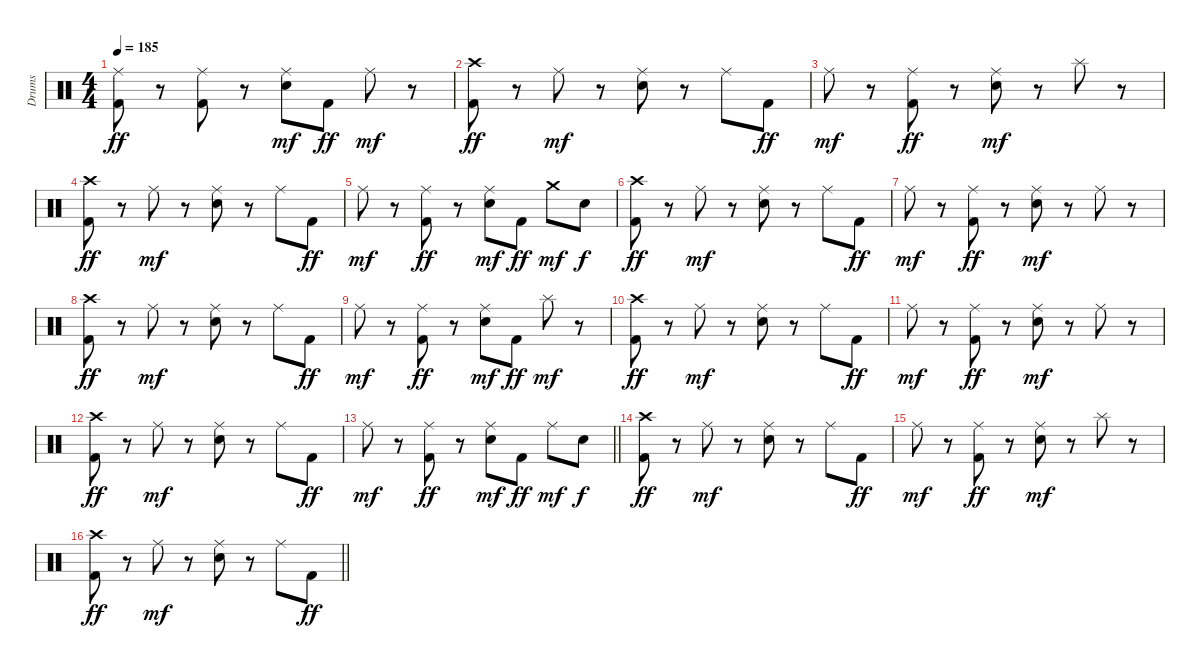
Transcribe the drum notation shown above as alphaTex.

\track ("Drums" "Drums") {instrument percussion}
\staff {score}
\articulation defaults
\ts (4 4)
\tempo 185
\clef neutral
\ks c
("Ride (middle)" "Kick (hit) 2").8{dy ff} r.8 ("Ride (middle)" "Kick (hit) 2").8 r.8 ("Ride (middle)" "Electric Snare (hit)").8{dy mf} "Kick (hit) 2".8{dy ff} "Ride (middle)".8{dy mf} r.8 |
("Crash high (hit)" "Kick (hit) 2").8{dy ff} r.8 "Ride (middle)".8{dy mf} r.8 ("Ride (middle)" "Electric Snare (hit)").8 r.8 "Ride (middle)".8 "Kick (hit) 2".8{dy ff} |
"Ride (middle)".8{dy mf} r.8 ("Ride (middle)" "Kick (hit) 2").8{dy ff} r.8 ("Ride (middle)" "Electric Snare (hit)").8{dy mf} r.8 "Splash (hit)".8 r.8 |
("Crash high (hit)" "Kick (hit) 2").8{dy ff} r.8 "Ride (middle)".8{dy mf} r.8 ("Ride (middle)" "Electric Snare (hit)").8 r.8 "Ride (middle)".8 "Kick (hit) 2".8{dy ff} |
"Ride (middle)".8{dy mf} r.8 ("Ride (middle)" "Kick (hit) 2").8{dy ff} r.8 ("Ride (middle)" "Electric Snare (hit)").8{dy mf} "Kick (hit) 2".8{dy ff} "Crash medium (hit)".8{dy mf} "Electric Snare (hit)".8{dy f} |
("Crash high (hit)" "Kick (hit) 2").8{dy ff} r.8 "Ride (middle)".8{dy mf} r.8 ("Ride (middle)" "Electric Snare (hit)").8 r.8 "Ride (middle)".8 "Kick (hit) 2".8{dy ff} |
"Ride (middle)".8{dy mf} r.8 ("Ride (middle)" "Kick (hit) 2").8{dy ff} r.8 ("Ride (middle)" "Electric Snare (hit)").8{dy mf} r.8 "Ride (middle)".8 r.8 |
("Crash high (hit)" "Kick (hit) 2").8{dy ff} r.8 "Ride (middle)".8{dy mf} r.8 ("Ride (middle)" "Electric Snare (hit)").8 r.8 "Ride (middle)".8 "Kick (hit) 2".8{dy ff} |
"Ride (middle)".8{dy mf} r.8 ("Ride (middle)" "Kick (hit) 2").8{dy ff} r.8 ("Ride (middle)" "Electric Snare (hit)").8{dy mf} "Kick (hit) 2".8{dy ff} "Splash (hit)".8{dy mf} r.8 |
("Crash high (hit)" "Kick (hit) 2").8{dy ff} r.8 "Ride (middle)".8{dy mf} r.8 ("Ride (middle)" "Electric Snare (hit)").8 r.8 "Ride (middle)".8 "Kick (hit) 2".8{dy ff} |
"Ride (middle)".8{dy mf} r.8 ("Ride (middle)" "Kick (hit) 2").8{dy ff} r.8 ("Ride (middle)" "Electric Snare (hit)").8{dy mf} r.8 "Ride (middle)".8 r.8 |
("Crash high (hit)" "Kick (hit) 2").8{dy ff} r.8 "Ride (middle)".8{dy mf} r.8 ("Ride (middle)" "Electric Snare (hit)").8 r.8 "Ride (middle)".8 "Kick (hit) 2".8{dy ff} |
\barLineRight lightlight "Ride (middle)".8{dy mf}
r.8 ("Ride (middle)" "Kick (hit) 2").8{dy ff} r.8 ("Ride (middle)" "Electric Snare (hit)").8{dy mf} "Kick (hit) 2".8{dy ff} "Ride (middle)".8{dy mf} "Electric Snare (hit)".8{dy f} |
("Crash high (hit)" "Kick (hit) 2").8{dy ff} r.8 "Ride (middle)".8{dy mf} r.8 ("Ride (middle)" "Electric Snare (hit)").8 r.8 "Ride (middle)".8 "Kick (hit) 2".8{dy ff} |
"Ride (middle)".8{dy mf} r.8 ("Ride (middle)" "Kick (hit) 2").8{dy ff} r.8 ("Ride (middle)" "Electric Snare (hit)").8{dy mf} r.8 "Splash (hit)".8 r.8 |
\barLineRight lightlight
("Crash high (hit)" "Kick (hit) 2").8{dy ff} r.8 "Ride (middle)".8{dy mf} r.8 ("Ride (middle)" "Electric Snare (hit)").8 r.8 "Ride (middle)".8 "Kick (hit) 2".8{dy ff}
